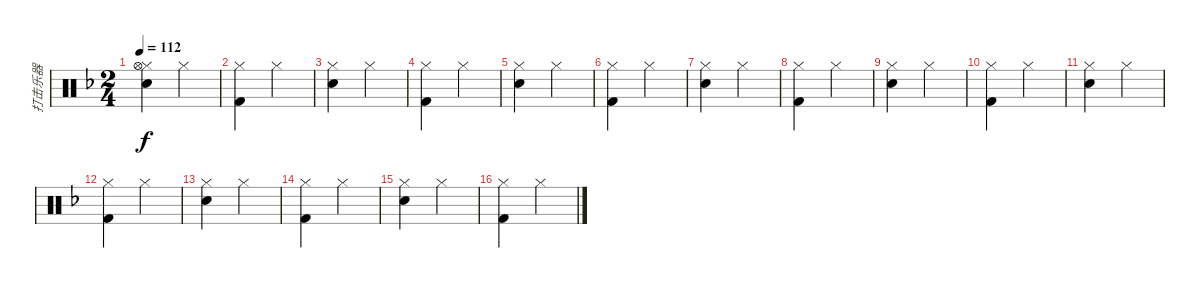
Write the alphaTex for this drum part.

\track ("打击乐器" "打击乐器") {instrument percussion}
\staff {score}
\articulation defaults
\ts (2 4)
\tempo 112
\clef neutral
\ks f
("Hi-Hat (closed)" "Hi-Hat (open)" "Snare (hit) 2").4{dy f} "Hi-Hat (closed)".4 |
("Hi-Hat (closed)" "Kick (hit) 2").4 "Hi-Hat (closed)".4 |
("Hi-Hat (closed)" "Snare (hit) 2").4 "Hi-Hat (closed)".4 |
("Hi-Hat (closed)" "Kick (hit) 2").4 "Hi-Hat (closed)".4 |
("Hi-Hat (closed)" "Snare (hit) 2").4 "Hi-Hat (closed)".4 |
("Hi-Hat (closed)" "Kick (hit) 2").4 "Hi-Hat (closed)".4 |
("Hi-Hat (closed)" "Snare (hit) 2").4 "Hi-Hat (closed)".4 |
("Hi-Hat (closed)" "Kick (hit) 2").4 "Hi-Hat (closed)".4 |
("Hi-Hat (closed)" "Snare (hit) 2").4 "Hi-Hat (closed)".4 |
("Hi-Hat (closed)" "Kick (hit) 2").4 "Hi-Hat (closed)".4 |
("Hi-Hat (closed)" "Snare (hit) 2").4 "Hi-Hat (closed)".4 |
("Hi-Hat (closed)" "Kick (hit) 2").4 "Hi-Hat (closed)".4 |
("Hi-Hat (closed)" "Snare (hit) 2").4 "Hi-Hat (closed)".4 |
("Hi-Hat (closed)" "Kick (hit) 2").4 "Hi-Hat (closed)".4 |
("Hi-Hat (closed)" "Snare (hit) 2").4 "Hi-Hat (closed)".4 |
("Hi-Hat (closed)" "Kick (hit) 2").4 "Hi-Hat (closed)".4
